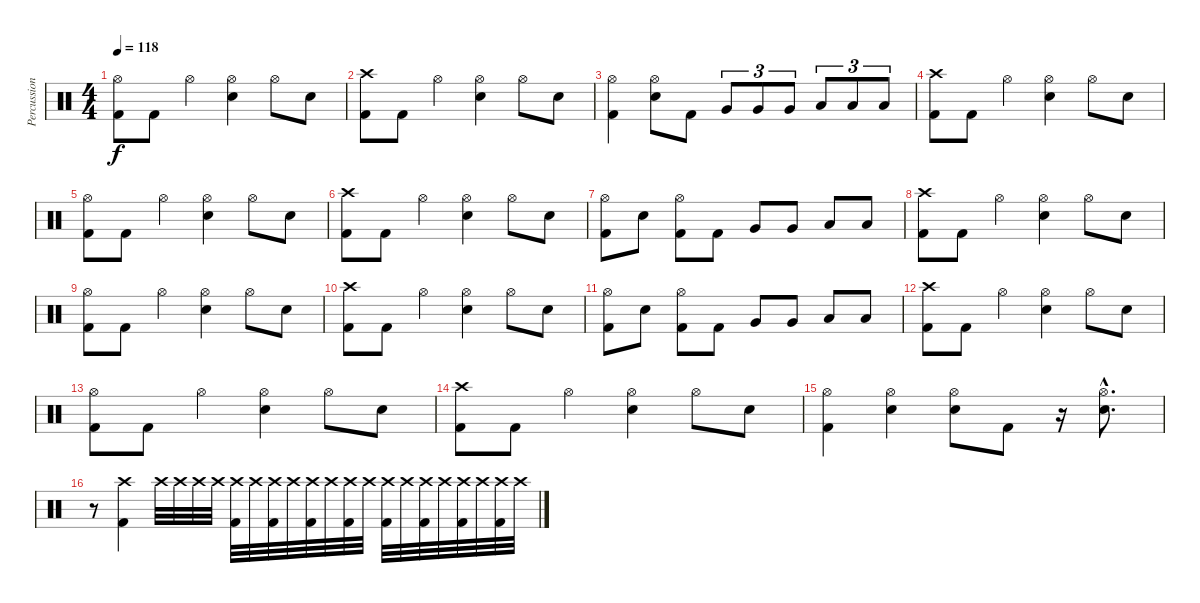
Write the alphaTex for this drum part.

\track ("Percussion" "Percussion") {instrument percussion}
\staff {score}
\articulation defaults
\ts (4 4)
\tempo 118
\clef neutral
\ks c
("Hi-Hat (open)" "Kick (hit) 2").8{dy f} "Kick (hit) 2".8 "Hi-Hat (open)".4 ("Hi-Hat (open)" "Snare (hit) 2").4 "Hi-Hat (open)".8 "Snare (hit) 2".8 |
("Crash high (hit)" "Kick (hit) 2").8 "Kick (hit) 2".8 "Hi-Hat (open)".4 ("Hi-Hat (open)" "Snare (hit) 2").4 "Hi-Hat (open)".8 "Snare (hit) 2".8 |
("Hi-Hat (open)" "Kick (hit) 2").4 ("Hi-Hat (open)" "Snare (hit) 2").8 "Kick (hit) 2".8 "Very Low Tom (hit)".8{tu (3 2)} "Very Low Tom (hit)".8{tu (3 2)} "Very Low Tom (hit)".8{tu (3 2)} "Low Floor Tom (hit)".8{tu (3 2)} "Low Floor Tom (hit)".8{tu (3 2)} "Low Floor Tom (hit)".8{tu (3 2)} |
("Crash high (hit)" "Kick (hit) 2").8 "Kick (hit) 2".8 "Hi-Hat (open)".4 ("Hi-Hat (open)" "Snare (hit) 2").4 "Hi-Hat (open)".8 "Snare (hit) 2".8 |
("Hi-Hat (open)" "Kick (hit) 2").8 "Kick (hit) 2".8 "Hi-Hat (open)".4 ("Hi-Hat (open)" "Snare (hit) 2").4 "Hi-Hat (open)".8 "Snare (hit) 2".8 |
("Crash high (hit)" "Kick (hit) 2").8 "Kick (hit) 2".8 "Hi-Hat (open)".4 ("Hi-Hat (open)" "Snare (hit) 2").4 "Hi-Hat (open)".8 "Snare (hit) 2".8 |
("Hi-Hat (open)" "Kick (hit) 2").8 "Snare (hit) 2".8 ("Hi-Hat (open)" "Kick (hit) 2").8 "Kick (hit) 2".8 "Very Low Tom (hit)".8 "Very Low Tom (hit)".8 "Low Floor Tom (hit)".8 "Low Floor Tom (hit)".8 |
("Crash high (hit)" "Kick (hit) 2").8 "Kick (hit) 2".8 "Hi-Hat (open)".4 ("Hi-Hat (open)" "Snare (hit) 2").4 "Hi-Hat (open)".8 "Snare (hit) 2".8 |
("Hi-Hat (open)" "Kick (hit) 2").8 "Kick (hit) 2".8 "Hi-Hat (open)".4 ("Hi-Hat (open)" "Snare (hit) 2").4 "Hi-Hat (open)".8 "Snare (hit) 2".8 |
("Crash high (hit)" "Kick (hit) 2").8 "Kick (hit) 2".8 "Hi-Hat (open)".4 ("Hi-Hat (open)" "Snare (hit) 2").4 "Hi-Hat (open)".8 "Snare (hit) 2".8 |
("Hi-Hat (open)" "Kick (hit) 2").8 "Snare (hit) 2".8 ("Hi-Hat (open)" "Kick (hit) 2").8 "Kick (hit) 2".8 "Very Low Tom (hit)".8 "Very Low Tom (hit)".8 "Low Floor Tom (hit)".8 "Low Floor Tom (hit)".8 |
("Crash high (hit)" "Kick (hit) 2").8 "Kick (hit) 2".8 "Hi-Hat (open)".4 ("Hi-Hat (open)" "Snare (hit) 2").4 "Hi-Hat (open)".8 "Snare (hit) 2".8 |
("Hi-Hat (open)" "Kick (hit) 2").8 "Kick (hit) 2".8 "Hi-Hat (open)".4 ("Hi-Hat (open)" "Snare (hit) 2").4 "Hi-Hat (open)".8 "Snare (hit) 2".8 |
("Crash high (hit)" "Kick (hit) 2").8 "Kick (hit) 2".8 "Hi-Hat (open)".4 ("Hi-Hat (open)" "Snare (hit) 2").4 "Hi-Hat (open)".8 "Snare (hit) 2".8 |
("Hi-Hat (open)" "Kick (hit) 2").4 ("Hi-Hat (open)" "Snare (hit) 2").4 ("Hi-Hat (open)" "Snare (hit) 2").8 "Kick (hit) 2".8 r.16 ("Hi-Hat (open)"{hac} "Snare (hit) 2"{hac}).8{d} |
r.8 ("Crash high (hit)" "Kick (hit) 2").4 "Crash high (hit)".32 "Crash high (hit)".32 "Crash high (hit)".32 "Crash high (hit)".32 ("Crash high (hit)" "Kick (hit) 2").32 "Crash high (hit)".32 ("Crash high (hit)" "Kick (hit) 2").32 "Crash high (hit)".32 ("Crash high (hit)" "Kick (hit) 2").32 "Crash high (hit)".32 ("Crash high (hit)" "Kick (hit) 2").32 "Crash high (hit)".32 ("Crash high (hit)" "Kick (hit) 2").32 "Crash high (hit)".32 ("Crash high (hit)" "Kick (hit) 2").32 "Crash high (hit)".32 ("Crash high (hit)" "Kick (hit) 2").32 "Crash high (hit)".32 ("Crash high (hit)" "Kick (hit) 2").32 "Crash high (hit)".32
